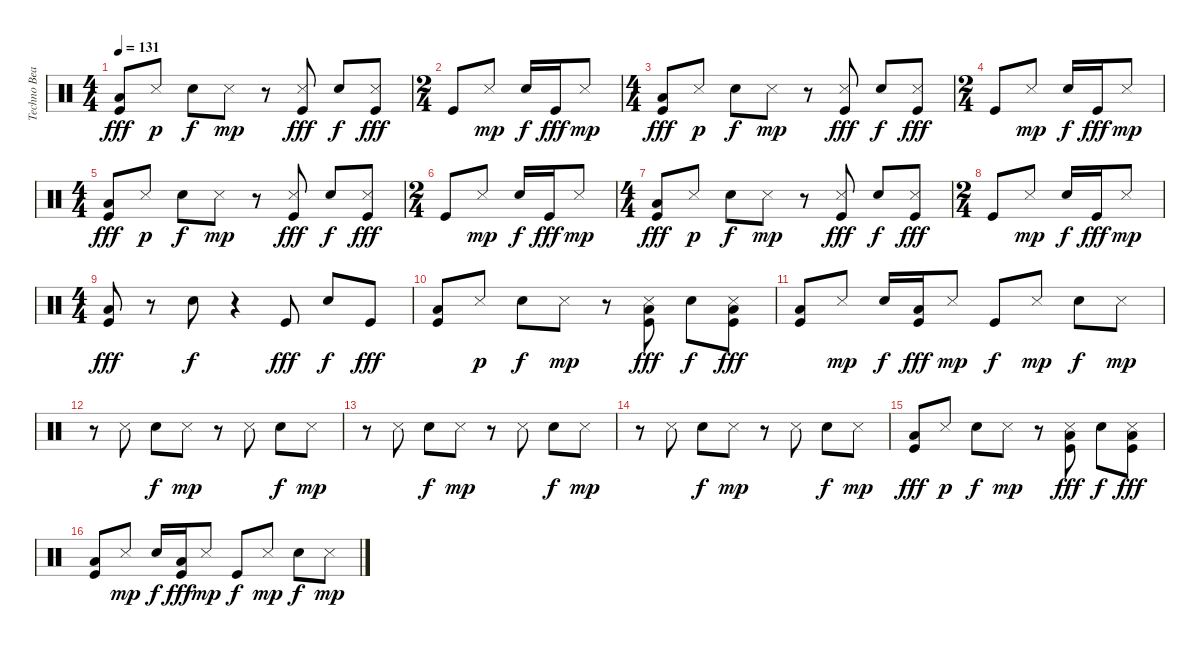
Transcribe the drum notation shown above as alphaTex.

\track ("Techno Beat" "Techno Bea") {instrument percussion}
\staff {score}
\articulation defaults
\ts (4 4)
\tempo 131
\clef neutral
\ks c
("Low Tom (hit)" "Kick (hit)").8{dy fff} "Snare (side stick) 3".8{dy p} "Electric Snare (hit)".8{dy f} "Snare (side stick) 3".8{dy mp} r.8 ("Snare (side stick) 3" "Kick (hit)").8{dy fff} "Electric Snare (hit)".8{dy f} ("Snare (side stick) 3" "Kick (hit)").8{dy fff} |
\ts (2 4)
"Kick (hit)".8 "Snare (side stick) 3".8{dy mp} "Electric Snare (hit)".16{dy f} "Kick (hit)".16{dy fff} "Snare (side stick) 3".8{dy mp} |
\ts (4 4)
("Low Tom (hit)" "Kick (hit)").8{dy fff} "Snare (side stick) 3".8{dy p} "Electric Snare (hit)".8{dy f} "Snare (side stick) 3".8{dy mp} r.8 ("Snare (side stick) 3" "Kick (hit)").8{dy fff} "Electric Snare (hit)".8{dy f} ("Snare (side stick) 3" "Kick (hit)").8{dy fff} |
\ts (2 4)
"Kick (hit)".8 "Snare (side stick) 3".8{dy mp} "Electric Snare (hit)".16{dy f} "Kick (hit)".16{dy fff} "Snare (side stick) 3".8{dy mp} |
\ts (4 4)
("Low Tom (hit)" "Kick (hit)").8{dy fff} "Snare (side stick) 3".8{dy p} "Electric Snare (hit)".8{dy f} "Snare (side stick) 3".8{dy mp} r.8 ("Snare (side stick) 3" "Kick (hit)").8{dy fff} "Electric Snare (hit)".8{dy f} ("Snare (side stick) 3" "Kick (hit)").8{dy fff} |
\ts (2 4)
"Kick (hit)".8 "Snare (side stick) 3".8{dy mp} "Electric Snare (hit)".16{dy f} "Kick (hit)".16{dy fff} "Snare (side stick) 3".8{dy mp} |
\ts (4 4)
("Low Tom (hit)" "Kick (hit)").8{dy fff} "Snare (side stick) 3".8{dy p} "Electric Snare (hit)".8{dy f} "Snare (side stick) 3".8{dy mp} r.8 ("Snare (side stick) 3" "Kick (hit)").8{dy fff} "Electric Snare (hit)".8{dy f} ("Snare (side stick) 3" "Kick (hit)").8{dy fff} |
\ts (2 4)
"Kick (hit)".8 "Snare (side stick) 3".8{dy mp} "Electric Snare (hit)".16{dy f} "Kick (hit)".16{dy fff} "Snare (side stick) 3".8{dy mp} |
\ts (4 4)
("Low Tom (hit)" "Kick (hit)").8{dy fff} r.8 "Electric Snare (hit)".8{dy f} r.4 "Kick (hit)".8{dy fff} "Electric Snare (hit)".8{dy f} "Kick (hit)".8{dy fff} |
("Low Tom (hit)" "Kick (hit)").8 "Snare (side stick) 3".8{dy p} "Electric Snare (hit)".8{dy f} "Snare (side stick) 3".8{dy mp} r.8 ("Snare (side stick) 3" "Low Tom (hit)" "Kick (hit)").8{dy fff} "Electric Snare (hit)".8{dy f} ("Snare (side stick) 3" "Low Tom (hit)" "Kick (hit)").8{dy fff} |
("Low Tom (hit)" "Kick (hit)").8 "Snare (side stick) 3".8{dy mp} "Electric Snare (hit)".16{dy f} ("Low Tom (hit)" "Kick (hit)").16{dy fff} "Snare (side stick) 3".8{dy mp} "Kick (hit)".8{dy f} "Snare (side stick) 3".8{dy mp} "Electric Snare (hit)".8{dy f} "Snare (side stick) 3".8{dy mp} |
r.8 "Snare (side stick) 3".8 "Electric Snare (hit)".8{dy f} "Snare (side stick) 3".8{dy mp} r.8 "Snare (side stick) 3".8 "Electric Snare (hit)".8{dy f} "Snare (side stick) 3".8{dy mp} |
r.8 "Snare (side stick) 3".8 "Electric Snare (hit)".8{dy f} "Snare (side stick) 3".8{dy mp} r.8 "Snare (side stick) 3".8 "Electric Snare (hit)".8{dy f} "Snare (side stick) 3".8{dy mp} |
r.8 "Snare (side stick) 3".8 "Electric Snare (hit)".8{dy f} "Snare (side stick) 3".8{dy mp} r.8 "Snare (side stick) 3".8 "Electric Snare (hit)".8{dy f} "Snare (side stick) 3".8{dy mp} |
("Low Tom (hit)" "Kick (hit)").8{dy fff} "Snare (side stick) 3".8{dy p} "Electric Snare (hit)".8{dy f} "Snare (side stick) 3".8{dy mp} r.8 ("Snare (side stick) 3" "Low Tom (hit)" "Kick (hit)").8{dy fff} "Electric Snare (hit)".8{dy f} ("Snare (side stick) 3" "Low Tom (hit)" "Kick (hit)").8{dy fff} |
("Low Tom (hit)" "Kick (hit)").8 "Snare (side stick) 3".8{dy mp} "Electric Snare (hit)".16{dy f} ("Low Tom (hit)" "Kick (hit)").16{dy fff} "Snare (side stick) 3".8{dy mp} "Kick (hit)".8{dy f} "Snare (side stick) 3".8{dy mp} "Electric Snare (hit)".8{dy f} "Snare (side stick) 3".8{dy mp}
